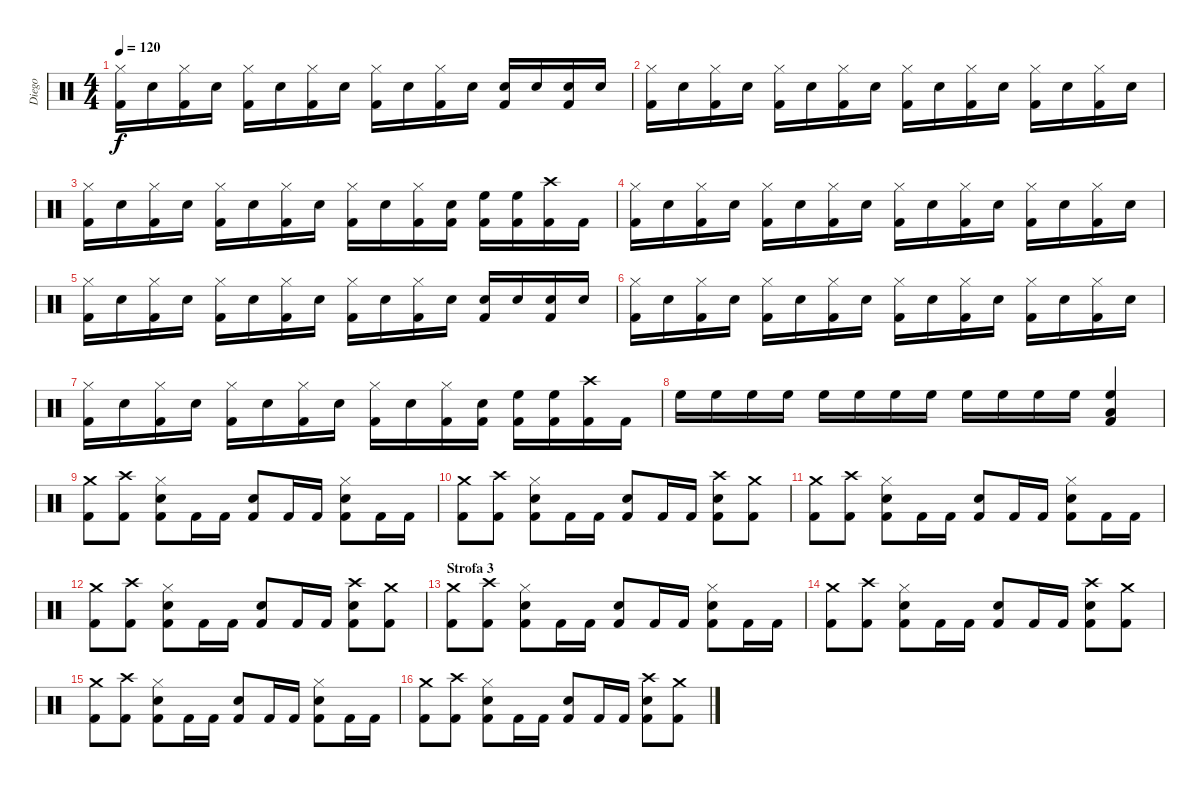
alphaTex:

\track ("Diego" "Diego") {instrument percussion}
\staff {score}
\articulation defaults
\ts (4 4)
\tempo 120
\clef neutral
\ks c
("Hi-Hat (closed)" "Kick (hit) 2").16{dy f} "Snare (hit) 2".16 ("Hi-Hat (closed)" "Kick (hit) 2").16 "Snare (hit) 2".16 ("Hi-Hat (closed)" "Kick (hit) 2").16 "Snare (hit) 2".16 ("Hi-Hat (closed)" "Kick (hit) 2").16 "Snare (hit) 2".16 ("Hi-Hat (closed)" "Kick (hit) 2").16 "Snare (hit) 2".16 ("Hi-Hat (closed)" "Kick (hit) 2").16 "Snare (hit) 2".16 ("Snare (hit) 2" "Kick (hit) 2").16 "Snare (hit) 2".16 ("Snare (hit) 2" "Kick (hit) 2").16 "Snare (hit) 2".16 |
("Hi-Hat (closed)" "Kick (hit) 2").16 "Snare (hit) 2".16 ("Hi-Hat (closed)" "Kick (hit) 2").16 "Snare (hit) 2".16 ("Hi-Hat (closed)" "Kick (hit) 2").16 "Snare (hit) 2".16 ("Hi-Hat (closed)" "Kick (hit) 2").16 "Snare (hit) 2".16 ("Hi-Hat (closed)" "Kick (hit) 2").16 "Snare (hit) 2".16 ("Hi-Hat (closed)" "Kick (hit) 2").16 "Snare (hit) 2".16 ("Hi-Hat (closed)" "Kick (hit) 2").16 "Snare (hit) 2".16 ("Hi-Hat (closed)" "Kick (hit) 2").16 "Snare (hit) 2".16 |
("Hi-Hat (closed)" "Kick (hit) 2").16 "Snare (hit) 2".16 ("Hi-Hat (closed)" "Kick (hit) 2").16 "Snare (hit) 2".16 ("Hi-Hat (closed)" "Kick (hit) 2").16 "Snare (hit) 2".16 ("Hi-Hat (closed)" "Kick (hit) 2").16 "Snare (hit) 2".16 ("Hi-Hat (closed)" "Kick (hit) 2").16 "Snare (hit) 2".16 ("Hi-Hat (closed)" "Kick (hit) 2").16 ("Snare (hit) 2" "Kick (hit) 2").16 ("High Floor Tom (hit)" "Kick (hit) 2").16 ("High Floor Tom (hit)" "Kick (hit) 2").16 ("Crash high (hit)" "Kick (hit) 2").16 "Kick (hit) 2".16 |
("Hi-Hat (closed)" "Kick (hit) 2").16 "Snare (hit) 2".16 ("Hi-Hat (closed)" "Kick (hit) 2").16 "Snare (hit) 2".16 ("Hi-Hat (closed)" "Kick (hit) 2").16 "Snare (hit) 2".16 ("Hi-Hat (closed)" "Kick (hit) 2").16 "Snare (hit) 2".16 ("Hi-Hat (closed)" "Kick (hit) 2").16 "Snare (hit) 2".16 ("Hi-Hat (closed)" "Kick (hit) 2").16 "Snare (hit) 2".16 ("Hi-Hat (closed)" "Kick (hit) 2").16 "Snare (hit) 2".16 ("Hi-Hat (closed)" "Kick (hit) 2").16 "Snare (hit) 2".16 |
("Hi-Hat (closed)" "Kick (hit) 2").16 "Snare (hit) 2".16 ("Hi-Hat (closed)" "Kick (hit) 2").16 "Snare (hit) 2".16 ("Hi-Hat (closed)" "Kick (hit) 2").16 "Snare (hit) 2".16 ("Hi-Hat (closed)" "Kick (hit) 2").16 "Snare (hit) 2".16 ("Hi-Hat (closed)" "Kick (hit) 2").16 "Snare (hit) 2".16 ("Hi-Hat (closed)" "Kick (hit) 2").16 "Snare (hit) 2".16 ("Snare (hit) 2" "Kick (hit) 2").16 "Snare (hit) 2".16 ("Snare (hit) 2" "Kick (hit) 2").16 "Snare (hit) 2".16 |
("Hi-Hat (closed)" "Kick (hit) 2").16 "Snare (hit) 2".16 ("Hi-Hat (closed)" "Kick (hit) 2").16 "Snare (hit) 2".16 ("Hi-Hat (closed)" "Kick (hit) 2").16 "Snare (hit) 2".16 ("Hi-Hat (closed)" "Kick (hit) 2").16 "Snare (hit) 2".16 ("Hi-Hat (closed)" "Kick (hit) 2").16 "Snare (hit) 2".16 ("Hi-Hat (closed)" "Kick (hit) 2").16 "Snare (hit) 2".16 ("Hi-Hat (closed)" "Kick (hit) 2").16 "Snare (hit) 2".16 ("Hi-Hat (closed)" "Kick (hit) 2").16 "Snare (hit) 2".16 |
("Hi-Hat (closed)" "Kick (hit) 2").16 "Snare (hit) 2".16 ("Hi-Hat (closed)" "Kick (hit) 2").16 "Snare (hit) 2".16 ("Hi-Hat (closed)" "Kick (hit) 2").16 "Snare (hit) 2".16 ("Hi-Hat (closed)" "Kick (hit) 2").16 "Snare (hit) 2".16 ("Hi-Hat (closed)" "Kick (hit) 2").16 "Snare (hit) 2".16 ("Hi-Hat (closed)" "Kick (hit) 2").16 ("Snare (hit) 2" "Kick (hit) 2").16 ("High Floor Tom (hit)" "Kick (hit) 2").16 ("High Floor Tom (hit)" "Kick (hit) 2").16 ("Crash high (hit)" "Kick (hit) 2").16 "Kick (hit) 2".16 |
"High Floor Tom (hit)".16 "High Floor Tom (hit)".16 "High Floor Tom (hit)".16 "High Floor Tom (hit)".16 "High Floor Tom (hit)".16 "High Floor Tom (hit)".16 "High Floor Tom (hit)".16 "High Floor Tom (hit)".16 "High Floor Tom (hit)".16 "High Floor Tom (hit)".16 "High Floor Tom (hit)".16 "High Floor Tom (hit)".16 ("High Floor Tom (hit)" "Low Tom (hit)" "Kick (hit) 2").4 |
("Crash medium (hit)" "Kick (hit) 2").8 ("Crash high (hit)" "Kick (hit) 2").8 ("Hi-Hat (closed)" "Snare (hit) 2" "Kick (hit) 2").8 "Kick (hit) 2".16 "Kick (hit) 2".16 ("Snare (hit) 2" "Kick (hit) 2").8 "Kick (hit) 2".16 "Kick (hit) 2".16 ("Hi-Hat (closed)" "Snare (hit) 2" "Kick (hit) 2").8 "Kick (hit) 2".16 "Kick (hit) 2".16 |
("Crash medium (hit)" "Kick (hit) 2").8 ("Crash high (hit)" "Kick (hit) 2").8 ("Hi-Hat (closed)" "Snare (hit) 2" "Kick (hit) 2").8 "Kick (hit) 2".16 "Kick (hit) 2".16 ("Snare (hit) 2" "Kick (hit) 2").8 "Kick (hit) 2".16 "Kick (hit) 2".16 ("Crash high (hit)" "Snare (hit) 2" "Kick (hit) 2").8 ("Crash medium (hit)" "Kick (hit) 2").8 |
("Crash medium (hit)" "Kick (hit) 2").8 ("Crash high (hit)" "Kick (hit) 2").8 ("Hi-Hat (closed)" "Snare (hit) 2" "Kick (hit) 2").8 "Kick (hit) 2".16 "Kick (hit) 2".16 ("Snare (hit) 2" "Kick (hit) 2").8 "Kick (hit) 2".16 "Kick (hit) 2".16 ("Hi-Hat (closed)" "Snare (hit) 2" "Kick (hit) 2").8 "Kick (hit) 2".16 "Kick (hit) 2".16 |
("Crash medium (hit)" "Kick (hit) 2").8 ("Crash high (hit)" "Kick (hit) 2").8 ("Hi-Hat (closed)" "Snare (hit) 2" "Kick (hit) 2").8 "Kick (hit) 2".16 "Kick (hit) 2".16 ("Snare (hit) 2" "Kick (hit) 2").8 "Kick (hit) 2".16 "Kick (hit) 2".16 ("Crash high (hit)" "Snare (hit) 2" "Kick (hit) 2").8 ("Crash medium (hit)" "Kick (hit) 2").8 |
\section ("" "Strofa 3")
("Crash medium (hit)" "Kick (hit) 2").8 ("Crash high (hit)" "Kick (hit) 2").8 ("Hi-Hat (closed)" "Snare (hit) 2" "Kick (hit) 2").8 "Kick (hit) 2".16 "Kick (hit) 2".16 ("Snare (hit) 2" "Kick (hit) 2").8 "Kick (hit) 2".16 "Kick (hit) 2".16 ("Hi-Hat (closed)" "Snare (hit) 2" "Kick (hit) 2").8 "Kick (hit) 2".16 "Kick (hit) 2".16 |
("Crash medium (hit)" "Kick (hit) 2").8 ("Crash high (hit)" "Kick (hit) 2").8 ("Hi-Hat (closed)" "Snare (hit) 2" "Kick (hit) 2").8 "Kick (hit) 2".16 "Kick (hit) 2".16 ("Snare (hit) 2" "Kick (hit) 2").8 "Kick (hit) 2".16 "Kick (hit) 2".16 ("Crash high (hit)" "Snare (hit) 2" "Kick (hit) 2").8 ("Crash medium (hit)" "Kick (hit) 2").8 |
("Crash medium (hit)" "Kick (hit) 2").8 ("Crash high (hit)" "Kick (hit) 2").8 ("Hi-Hat (closed)" "Snare (hit) 2" "Kick (hit) 2").8 "Kick (hit) 2".16 "Kick (hit) 2".16 ("Snare (hit) 2" "Kick (hit) 2").8 "Kick (hit) 2".16 "Kick (hit) 2".16 ("Hi-Hat (closed)" "Snare (hit) 2" "Kick (hit) 2").8 "Kick (hit) 2".16 "Kick (hit) 2".16 |
("Crash medium (hit)" "Kick (hit) 2").8 ("Crash high (hit)" "Kick (hit) 2").8 ("Hi-Hat (closed)" "Snare (hit) 2" "Kick (hit) 2").8 "Kick (hit) 2".16 "Kick (hit) 2".16 ("Snare (hit) 2" "Kick (hit) 2").8 "Kick (hit) 2".16 "Kick (hit) 2".16 ("Crash high (hit)" "Snare (hit) 2" "Kick (hit) 2").8 ("Crash medium (hit)" "Kick (hit) 2").8
